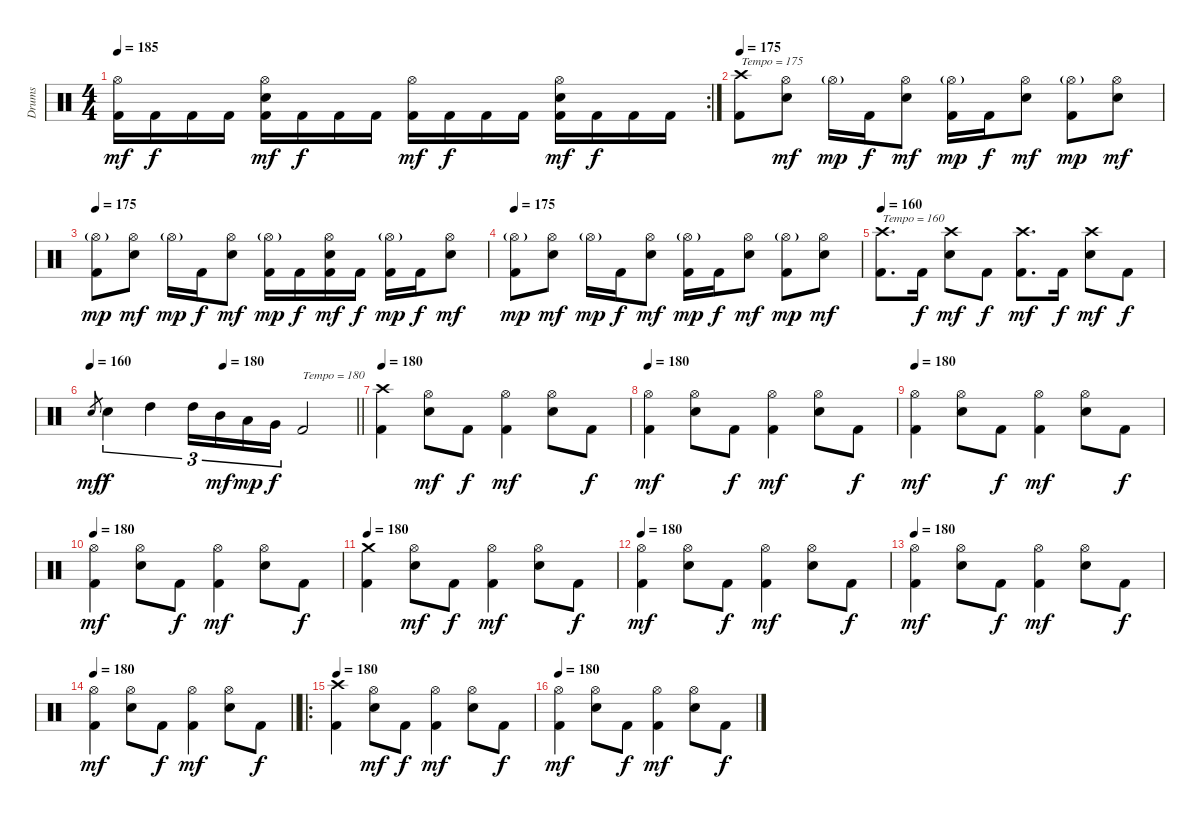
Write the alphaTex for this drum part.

\track ("Drums" "Drums") {instrument percussion}
\staff {score}
\articulation defaults
\rc 2
\ts (4 4)
\tempo 185
\clef neutral
\ks c
("Hi-Hat (open)" "Kick (hit) 2").16{dy mf} "Kick (hit) 2".16{dy f} "Kick (hit) 2".16 "Kick (hit) 2".16 ("Hi-Hat (open)" "Electric Snare (hit)" "Kick (hit) 2").16{dy mf} "Kick (hit) 2".16{dy f} "Kick (hit) 2".16 "Kick (hit) 2".16 ("Hi-Hat (open)" "Kick (hit) 2").16{dy mf} "Kick (hit) 2".16{dy f} "Kick (hit) 2".16 "Kick (hit) 2".16 ("Hi-Hat (open)" "Electric Snare (hit)" "Kick (hit) 2").16{dy mf} "Kick (hit) 2".16{dy f} "Kick (hit) 2".16 "Kick (hit) 2".16 |
\tempo 175
("Crash high (hit)" "Kick (hit) 2").8{txt "Tempo = 175"} ("Hi-Hat (open)" "Electric Snare (hit)").8{dy mf} "Hi-Hat (open)"{g}.16{dy mp} "Kick (hit) 2".16{dy f} ("Hi-Hat (open)" "Electric Snare (hit)").8{dy mf} ("Hi-Hat (open)"{g} "Kick (hit) 2").16{dy mp} "Kick (hit) 2".16{dy f} ("Hi-Hat (open)" "Electric Snare (hit)").8{dy mf} ("Hi-Hat (open)"{g} "Kick (hit) 2").8{dy mp} ("Hi-Hat (open)" "Electric Snare (hit)").8{dy mf} |
\tempo 175
("Hi-Hat (open)"{g} "Kick (hit) 2").8{dy mp} ("Hi-Hat (open)" "Electric Snare (hit)").8{dy mf} "Hi-Hat (open)"{g}.16{dy mp} "Kick (hit) 2".16{dy f} ("Hi-Hat (open)" "Electric Snare (hit)").8{dy mf} ("Hi-Hat (open)"{g} "Kick (hit) 2").16{dy mp} "Kick (hit) 2".16{dy f} ("Hi-Hat (open)" "Electric Snare (hit)" "Kick (hit) 2").16{dy mf} "Kick (hit) 2".16{dy f} ("Hi-Hat (open)"{g} "Kick (hit) 2").16{dy mp} "Kick (hit) 2".16{dy f} ("Hi-Hat (open)" "Electric Snare (hit)").8{dy mf} |
\tempo 175
("Hi-Hat (open)"{g} "Kick (hit) 2").8{dy mp} ("Hi-Hat (open)" "Electric Snare (hit)").8{dy mf} "Hi-Hat (open)"{g}.16{dy mp} "Kick (hit) 2".16{dy f} ("Hi-Hat (open)" "Electric Snare (hit)").8{dy mf} ("Hi-Hat (open)"{g} "Kick (hit) 2").16{dy mp} "Kick (hit) 2".16{dy f} ("Hi-Hat (open)" "Electric Snare (hit)").8{dy mf} ("Hi-Hat (open)"{g} "Kick (hit) 2").8{dy mp} ("Hi-Hat (open)" "Electric Snare (hit)").8{dy mf} |
\tempo 160
("Crash high (hit)" "Kick (hit) 2").8{d txt "Tempo = 160"} "Kick (hit) 2".16{dy f} ("Crash high (hit)" "Electric Snare (hit)").8{dy mf} "Kick (hit) 2".8{dy f} ("Crash high (hit)" "Kick (hit) 2").8{d dy mf} "Kick (hit) 2".16{dy f} ("Crash high (hit)" "Electric Snare (hit)").8{dy mf} "Kick (hit) 2".8{dy f} |
\tempo 160
\tempo (180 0.5)
\barLineRight lightlight "Electric Snare (hit)".8{gr dy mf} "Electric Snare (hit)".4{tu (3 2) dy f} "High Tom (hit)".4{tu (3 2)} "High Tom (hit)".16{tu (3 2)} "Mid Tom (hit)".16{tu (3 2) dy mf} "Low Tom (hit)".16{tu (3 2) dy mp} "Very Low Tom (hit)".16{tu (3 2) dy f} "Kick (hit) 2".2{txt "Tempo = 180"}
|
\tempo 180
("Crash high (hit)" "Kick (hit) 2").4 ("Hi-Hat (open)" "Electric Snare (hit)").8{dy mf} "Kick (hit) 2".8{dy f} ("Hi-Hat (open)" "Kick (hit) 2").4{dy mf} ("Hi-Hat (open)" "Electric Snare (hit)").8 "Kick (hit) 2".8{dy f} |
\tempo 180
("Hi-Hat (open)" "Kick (hit) 2").4{dy mf} ("Hi-Hat (open)" "Electric Snare (hit)").8 "Kick (hit) 2".8{dy f} ("Hi-Hat (open)" "Kick (hit) 2").4{dy mf} ("Hi-Hat (open)" "Electric Snare (hit)").8 "Kick (hit) 2".8{dy f} |
\tempo 180
("Hi-Hat (open)" "Kick (hit) 2").4{dy mf} ("Hi-Hat (open)" "Electric Snare (hit)").8 "Kick (hit) 2".8{dy f} ("Hi-Hat (open)" "Kick (hit) 2").4{dy mf} ("Hi-Hat (open)" "Electric Snare (hit)").8 "Kick (hit) 2".8{dy f} |
\tempo 180
("Hi-Hat (open)" "Kick (hit) 2").4{dy mf} ("Hi-Hat (open)" "Electric Snare (hit)").8 "Kick (hit) 2".8{dy f} ("Hi-Hat (open)" "Kick (hit) 2").4{dy mf} ("Hi-Hat (open)" "Electric Snare (hit)").8 "Kick (hit) 2".8{dy f} |
\tempo 180
("Crash medium (hit)" "Kick (hit) 2").4 ("Hi-Hat (open)" "Electric Snare (hit)").8{dy mf} "Kick (hit) 2".8{dy f} ("Hi-Hat (open)" "Kick (hit) 2").4{dy mf} ("Hi-Hat (open)" "Electric Snare (hit)").8 "Kick (hit) 2".8{dy f} |
\tempo 180
("Hi-Hat (open)" "Kick (hit) 2").4{dy mf} ("Hi-Hat (open)" "Electric Snare (hit)").8 "Kick (hit) 2".8{dy f} ("Hi-Hat (open)" "Kick (hit) 2").4{dy mf} ("Hi-Hat (open)" "Electric Snare (hit)").8 "Kick (hit) 2".8{dy f} |
\tempo 180
("Hi-Hat (open)" "Kick (hit) 2").4{dy mf} ("Hi-Hat (open)" "Electric Snare (hit)").8 "Kick (hit) 2".8{dy f} ("Hi-Hat (open)" "Kick (hit) 2").4{dy mf} ("Hi-Hat (open)" "Electric Snare (hit)").8 "Kick (hit) 2".8{dy f} |
\tempo 180
\barLineRight lightlight
("Hi-Hat (open)" "Kick (hit) 2").4{dy mf} ("Hi-Hat (open)" "Electric Snare (hit)").8 "Kick (hit) 2".8{dy f} ("Hi-Hat (open)" "Kick (hit) 2").4{dy mf} ("Hi-Hat (open)" "Electric Snare (hit)").8 "Kick (hit) 2".8{dy f} |
\ro
\tempo 180
("Crash high (hit)" "Kick (hit) 2").4 ("Hi-Hat (open)" "Electric Snare (hit)").8{dy mf} "Kick (hit) 2".8{dy f} ("Hi-Hat (open)" "Kick (hit) 2").4{dy mf} ("Hi-Hat (open)" "Electric Snare (hit)").8 "Kick (hit) 2".8{dy f} |
\tempo 180
("Hi-Hat (open)" "Kick (hit) 2").4{dy mf} ("Hi-Hat (open)" "Electric Snare (hit)").8 "Kick (hit) 2".8{dy f} ("Hi-Hat (open)" "Kick (hit) 2").4{dy mf} ("Hi-Hat (open)" "Electric Snare (hit)").8 "Kick (hit) 2".8{dy f}
